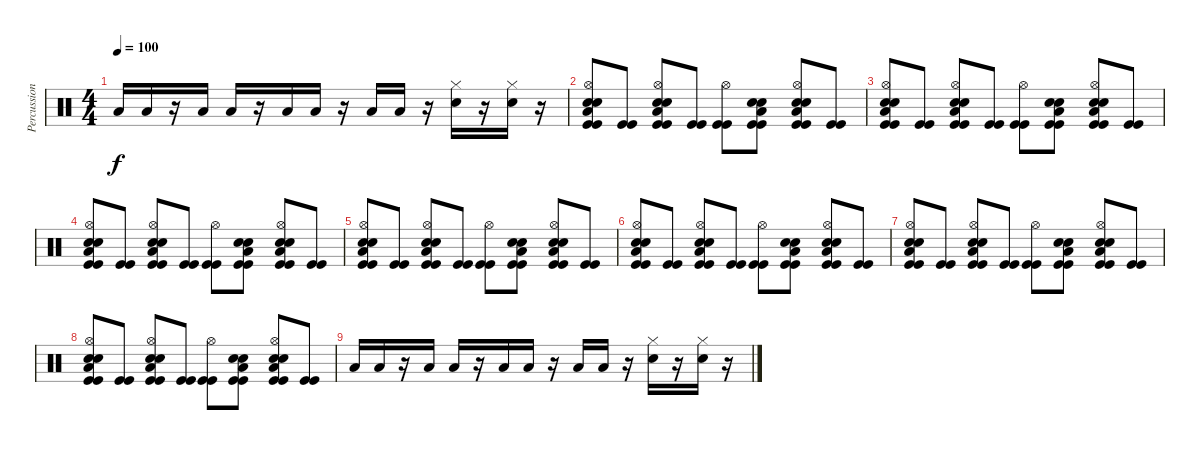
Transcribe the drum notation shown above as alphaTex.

\track ("Percussion" "Percussion") {instrument percussion}
\staff {score}
\articulation defaults
\ts (4 4)
\tempo 100
\clef neutral
\ks c "Low Tom (hit)".16{dy f} "Low Tom (hit)".16
r.16 "Low Tom (hit)".16 "Low Tom (hit)".16 r.16 "Low Tom (hit)".16 "Low Tom (hit)".16 r.16 "Low Tom (hit)".16 "Low Tom (hit)".16 r.16 ("Hi-Hat (closed)" "Electric Snare (hit)").16 r.16 ("Hi-Hat (closed)" "Electric Snare (hit)").16 r.16 |
("Hi-Hat (open)" "Kick (hit)" "Kick (hit)" "Electric Snare (hit)" "Electric Snare (hit)" "Low Tom (hit)").8 ("Kick (hit)" "Kick (hit)").8 ("Hi-Hat (open)" "Kick (hit)" "Kick (hit)" "Electric Snare (hit)" "Electric Snare (hit)" "Low Tom (hit)").8 ("Kick (hit)" "Kick (hit)").8 ("Hi-Hat (open)" "Kick (hit)" "Kick (hit)").8 ("Kick (hit)" "Kick (hit)" "Electric Snare (hit)" "Electric Snare (hit)" "Low Tom (hit)").8 ("Hi-Hat (open)" "Kick (hit)" "Kick (hit)" "Electric Snare (hit)" "Electric Snare (hit)" "Low Tom (hit)").8 ("Kick (hit)" "Kick (hit)").8 |
("Hi-Hat (open)" "Kick (hit)" "Kick (hit)" "Electric Snare (hit)" "Electric Snare (hit)" "Low Tom (hit)").8 ("Kick (hit)" "Kick (hit)").8 ("Hi-Hat (open)" "Kick (hit)" "Kick (hit)" "Electric Snare (hit)" "Electric Snare (hit)" "Low Tom (hit)").8 ("Kick (hit)" "Kick (hit)").8 ("Hi-Hat (open)" "Kick (hit)" "Kick (hit)").8 ("Kick (hit)" "Kick (hit)" "Electric Snare (hit)" "Electric Snare (hit)" "Low Tom (hit)").8 ("Hi-Hat (open)" "Kick (hit)" "Kick (hit)" "Electric Snare (hit)" "Electric Snare (hit)" "Low Tom (hit)").8 ("Kick (hit)" "Kick (hit)").8 |
("Hi-Hat (open)" "Kick (hit)" "Kick (hit)" "Electric Snare (hit)" "Electric Snare (hit)" "Low Tom (hit)").8 ("Kick (hit)" "Kick (hit)").8 ("Hi-Hat (open)" "Kick (hit)" "Kick (hit)" "Electric Snare (hit)" "Electric Snare (hit)" "Low Tom (hit)").8 ("Kick (hit)" "Kick (hit)").8 ("Hi-Hat (open)" "Kick (hit)" "Kick (hit)").8 ("Kick (hit)" "Kick (hit)" "Electric Snare (hit)" "Electric Snare (hit)" "Low Tom (hit)").8 ("Hi-Hat (open)" "Kick (hit)" "Kick (hit)" "Electric Snare (hit)" "Electric Snare (hit)" "Low Tom (hit)").8 ("Kick (hit)" "Kick (hit)").8 |
("Hi-Hat (open)" "Kick (hit)" "Kick (hit)" "Electric Snare (hit)" "Electric Snare (hit)" "Low Tom (hit)").8 ("Kick (hit)" "Kick (hit)").8 ("Hi-Hat (open)" "Kick (hit)" "Kick (hit)" "Electric Snare (hit)" "Electric Snare (hit)" "Low Tom (hit)").8 ("Kick (hit)" "Kick (hit)").8 ("Hi-Hat (open)" "Kick (hit)" "Kick (hit)").8 ("Kick (hit)" "Kick (hit)" "Electric Snare (hit)" "Electric Snare (hit)" "Low Tom (hit)").8 ("Hi-Hat (open)" "Kick (hit)" "Kick (hit)" "Electric Snare (hit)" "Electric Snare (hit)" "Low Tom (hit)").8 ("Kick (hit)" "Kick (hit)").8 |
("Hi-Hat (open)" "Kick (hit)" "Kick (hit)" "Electric Snare (hit)" "Electric Snare (hit)" "Low Tom (hit)").8 ("Kick (hit)" "Kick (hit)").8 ("Hi-Hat (open)" "Kick (hit)" "Kick (hit)" "Electric Snare (hit)" "Electric Snare (hit)" "Low Tom (hit)").8 ("Kick (hit)" "Kick (hit)").8 ("Hi-Hat (open)" "Kick (hit)" "Kick (hit)").8 ("Kick (hit)" "Kick (hit)" "Electric Snare (hit)" "Electric Snare (hit)" "Low Tom (hit)").8 ("Hi-Hat (open)" "Kick (hit)" "Kick (hit)" "Electric Snare (hit)" "Electric Snare (hit)" "Low Tom (hit)").8 ("Kick (hit)" "Kick (hit)").8 |
("Hi-Hat (open)" "Kick (hit)" "Kick (hit)" "Electric Snare (hit)" "Electric Snare (hit)" "Low Tom (hit)").8 ("Kick (hit)" "Kick (hit)").8 ("Hi-Hat (open)" "Kick (hit)" "Kick (hit)" "Electric Snare (hit)" "Electric Snare (hit)" "Low Tom (hit)").8 ("Kick (hit)" "Kick (hit)").8 ("Hi-Hat (open)" "Kick (hit)" "Kick (hit)").8 ("Kick (hit)" "Kick (hit)" "Electric Snare (hit)" "Electric Snare (hit)" "Low Tom (hit)").8 ("Hi-Hat (open)" "Kick (hit)" "Kick (hit)" "Electric Snare (hit)" "Electric Snare (hit)" "Low Tom (hit)").8 ("Kick (hit)" "Kick (hit)").8 |
("Hi-Hat (open)" "Kick (hit)" "Kick (hit)" "Electric Snare (hit)" "Electric Snare (hit)" "Low Tom (hit)").8 ("Kick (hit)" "Kick (hit)").8 ("Hi-Hat (open)" "Kick (hit)" "Kick (hit)" "Electric Snare (hit)" "Electric Snare (hit)" "Low Tom (hit)").8 ("Kick (hit)" "Kick (hit)").8 ("Hi-Hat (open)" "Kick (hit)" "Kick (hit)").8 ("Kick (hit)" "Kick (hit)" "Electric Snare (hit)" "Electric Snare (hit)" "Low Tom (hit)").8 ("Hi-Hat (open)" "Kick (hit)" "Kick (hit)" "Electric Snare (hit)" "Electric Snare (hit)" "Low Tom (hit)").8 ("Kick (hit)" "Kick (hit)").8 |
"Low Tom (hit)".16 "Low Tom (hit)".16 r.16 "Low Tom (hit)".16 "Low Tom (hit)".16 r.16 "Low Tom (hit)".16 "Low Tom (hit)".16 r.16 "Low Tom (hit)".16 "Low Tom (hit)".16 r.16 ("Hi-Hat (closed)" "Electric Snare (hit)").16 r.16 ("Hi-Hat (closed)" "Electric Snare (hit)").16 r.16
